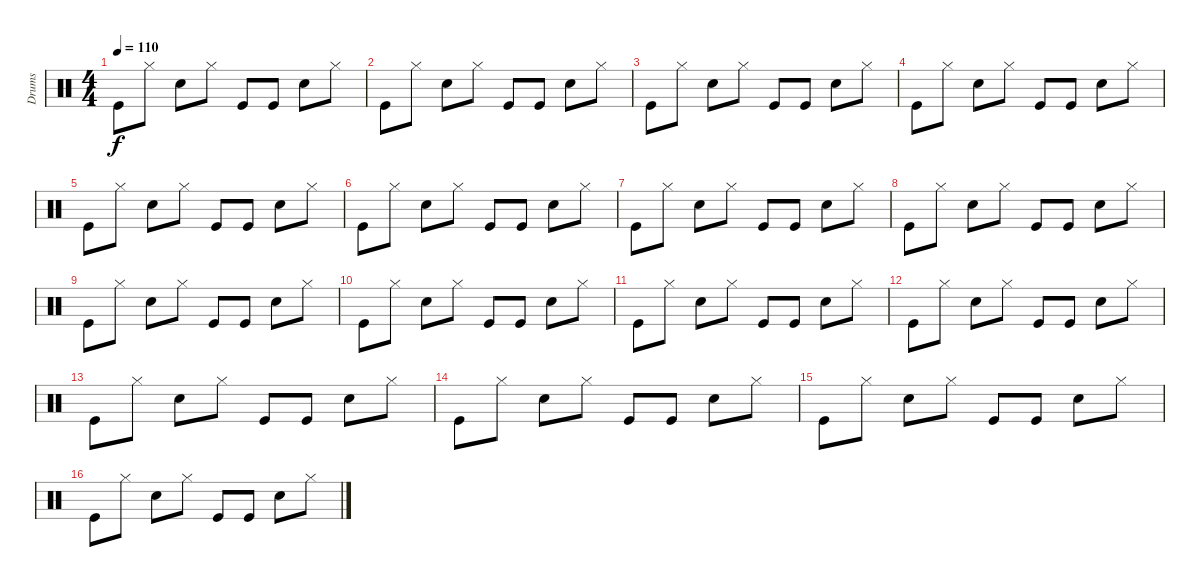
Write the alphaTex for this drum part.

\track ("Drums" "Drums") {instrument percussion}
\staff {score}
\articulation defaults
\ts (4 4)
\tempo 110
\clef neutral
\ks c "Kick (hit)".8{dy f} "Hi-Hat (closed)".8 "Electric Snare (hit)".8 "Hi-Hat (closed)".8 "Kick (hit)".8 "Kick (hit)".8 "Electric Snare (hit)".8 "Hi-Hat (closed)".8
|
"Kick (hit)".8 "Hi-Hat (closed)".8 "Electric Snare (hit)".8 "Hi-Hat (closed)".8 "Kick (hit)".8 "Kick (hit)".8 "Electric Snare (hit)".8 "Hi-Hat (closed)".8 |
"Kick (hit)".8 "Hi-Hat (closed)".8 "Electric Snare (hit)".8 "Hi-Hat (closed)".8 "Kick (hit)".8 "Kick (hit)".8 "Electric Snare (hit)".8 "Hi-Hat (closed)".8 |
"Kick (hit)".8 "Hi-Hat (closed)".8 "Electric Snare (hit)".8 "Hi-Hat (closed)".8 "Kick (hit)".8 "Kick (hit)".8 "Electric Snare (hit)".8 "Hi-Hat (closed)".8 |
"Kick (hit)".8 "Hi-Hat (closed)".8 "Electric Snare (hit)".8 "Hi-Hat (closed)".8 "Kick (hit)".8 "Kick (hit)".8 "Electric Snare (hit)".8 "Hi-Hat (closed)".8 |
"Kick (hit)".8 "Hi-Hat (closed)".8 "Electric Snare (hit)".8 "Hi-Hat (closed)".8 "Kick (hit)".8 "Kick (hit)".8 "Electric Snare (hit)".8 "Hi-Hat (closed)".8 |
"Kick (hit)".8 "Hi-Hat (closed)".8 "Electric Snare (hit)".8 "Hi-Hat (closed)".8 "Kick (hit)".8 "Kick (hit)".8 "Electric Snare (hit)".8 "Hi-Hat (closed)".8 |
"Kick (hit)".8 "Hi-Hat (closed)".8 "Electric Snare (hit)".8 "Hi-Hat (closed)".8 "Kick (hit)".8 "Kick (hit)".8 "Electric Snare (hit)".8 "Hi-Hat (closed)".8 |
"Kick (hit)".8 "Hi-Hat (closed)".8 "Electric Snare (hit)".8 "Hi-Hat (closed)".8 "Kick (hit)".8 "Kick (hit)".8 "Electric Snare (hit)".8 "Hi-Hat (closed)".8 |
"Kick (hit)".8 "Hi-Hat (closed)".8 "Electric Snare (hit)".8 "Hi-Hat (closed)".8 "Kick (hit)".8 "Kick (hit)".8 "Electric Snare (hit)".8 "Hi-Hat (closed)".8 |
"Kick (hit)".8 "Hi-Hat (closed)".8 "Electric Snare (hit)".8 "Hi-Hat (closed)".8 "Kick (hit)".8 "Kick (hit)".8 "Electric Snare (hit)".8 "Hi-Hat (closed)".8 |
"Kick (hit)".8 "Hi-Hat (closed)".8 "Electric Snare (hit)".8 "Hi-Hat (closed)".8 "Kick (hit)".8 "Kick (hit)".8 "Electric Snare (hit)".8 "Hi-Hat (closed)".8 |
"Kick (hit)".8 "Hi-Hat (closed)".8 "Electric Snare (hit)".8 "Hi-Hat (closed)".8 "Kick (hit)".8 "Kick (hit)".8 "Electric Snare (hit)".8 "Hi-Hat (closed)".8 |
"Kick (hit)".8 "Hi-Hat (closed)".8 "Electric Snare (hit)".8 "Hi-Hat (closed)".8 "Kick (hit)".8 "Kick (hit)".8 "Electric Snare (hit)".8 "Hi-Hat (closed)".8 |
"Kick (hit)".8 "Hi-Hat (closed)".8 "Electric Snare (hit)".8 "Hi-Hat (closed)".8 "Kick (hit)".8 "Kick (hit)".8 "Electric Snare (hit)".8 "Hi-Hat (closed)".8 |
"Kick (hit)".8 "Hi-Hat (closed)".8 "Electric Snare (hit)".8 "Hi-Hat (closed)".8 "Kick (hit)".8 "Kick (hit)".8 "Electric Snare (hit)".8 "Hi-Hat (closed)".8
